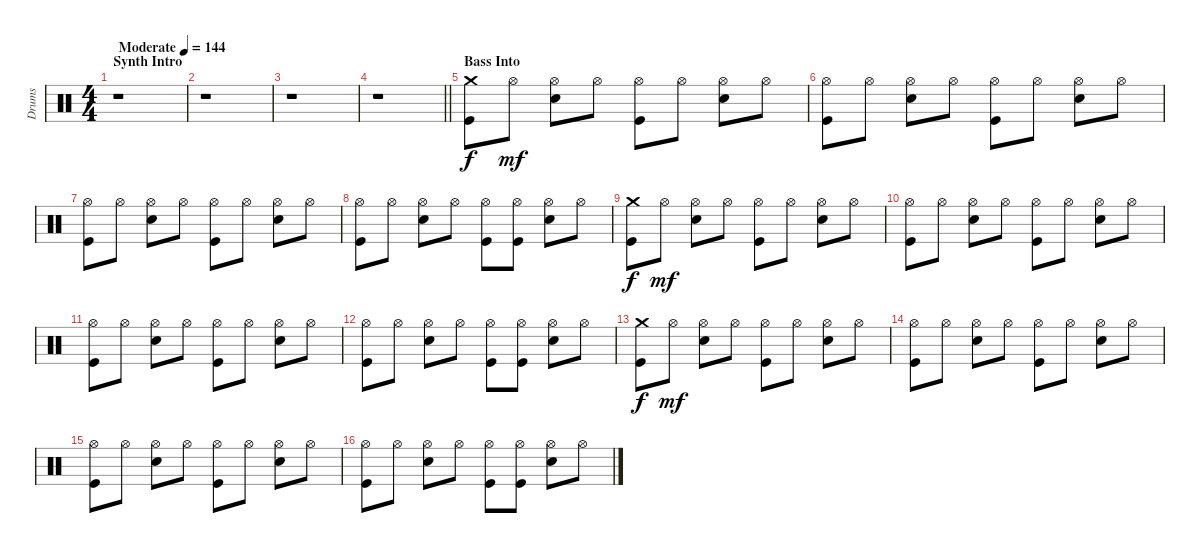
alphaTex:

\track ("Drums" "Drums") {instrument percussion}
\staff {score}
\articulation defaults
\ts (4 4)
\section ("" "Synth Intro")
\tempo (144 "Moderate")
\clef neutral
\ks c
r.1{dy f} |
r.1 |
r.1 |
\barLineRight lightlight
r.1 |
\section ("" "Bass Into")
("Crash medium (hit)" "Kick (hit)").8 "Hi-Hat (open)".8{dy mf} ("Hi-Hat (open)" "Snare (hit) 2").8 "Hi-Hat (open)".8 ("Hi-Hat (open)" "Kick (hit)").8 "Hi-Hat (open)".8 ("Hi-Hat (open)" "Snare (hit) 2").8 "Hi-Hat (open)".8 |
("Hi-Hat (open)" "Kick (hit)").8 "Hi-Hat (open)".8 ("Hi-Hat (open)" "Snare (hit) 2").8 "Hi-Hat (open)".8 ("Hi-Hat (open)" "Kick (hit)").8 "Hi-Hat (open)".8 ("Hi-Hat (open)" "Snare (hit) 2").8 "Hi-Hat (open)".8 |
("Hi-Hat (open)" "Kick (hit)").8 "Hi-Hat (open)".8 ("Hi-Hat (open)" "Snare (hit) 2").8 "Hi-Hat (open)".8 ("Hi-Hat (open)" "Kick (hit)").8 "Hi-Hat (open)".8 ("Hi-Hat (open)" "Snare (hit) 2").8 "Hi-Hat (open)".8 |
("Hi-Hat (open)" "Kick (hit)").8 "Hi-Hat (open)".8 ("Hi-Hat (open)" "Snare (hit) 2").8 "Hi-Hat (open)".8 ("Hi-Hat (open)" "Kick (hit)").8 ("Hi-Hat (open)" "Kick (hit)").8 ("Hi-Hat (open)" "Snare (hit) 2").8 "Hi-Hat (open)".8 |
("Crash medium (hit)" "Kick (hit)").8{dy f} "Hi-Hat (open)".8{dy mf} ("Hi-Hat (open)" "Snare (hit) 2").8 "Hi-Hat (open)".8 ("Hi-Hat (open)" "Kick (hit)").8 "Hi-Hat (open)".8 ("Hi-Hat (open)" "Snare (hit) 2").8 "Hi-Hat (open)".8 |
("Hi-Hat (open)" "Kick (hit)").8 "Hi-Hat (open)".8 ("Hi-Hat (open)" "Snare (hit) 2").8 "Hi-Hat (open)".8 ("Hi-Hat (open)" "Kick (hit)").8 "Hi-Hat (open)".8 ("Hi-Hat (open)" "Snare (hit) 2").8 "Hi-Hat (open)".8 |
("Hi-Hat (open)" "Kick (hit)").8 "Hi-Hat (open)".8 ("Hi-Hat (open)" "Snare (hit) 2").8 "Hi-Hat (open)".8 ("Hi-Hat (open)" "Kick (hit)").8 "Hi-Hat (open)".8 ("Hi-Hat (open)" "Snare (hit) 2").8 "Hi-Hat (open)".8 |
("Hi-Hat (open)" "Kick (hit)").8 "Hi-Hat (open)".8 ("Hi-Hat (open)" "Snare (hit) 2").8 "Hi-Hat (open)".8 ("Hi-Hat (open)" "Kick (hit)").8 ("Hi-Hat (open)" "Kick (hit)").8 ("Hi-Hat (open)" "Snare (hit) 2").8 "Hi-Hat (open)".8 |
("Crash medium (hit)" "Kick (hit)").8{dy f} "Hi-Hat (open)".8{dy mf} ("Hi-Hat (open)" "Snare (hit) 2").8 "Hi-Hat (open)".8 ("Hi-Hat (open)" "Kick (hit)").8 "Hi-Hat (open)".8 ("Hi-Hat (open)" "Snare (hit) 2").8 "Hi-Hat (open)".8 |
("Hi-Hat (open)" "Kick (hit)").8 "Hi-Hat (open)".8 ("Hi-Hat (open)" "Snare (hit) 2").8 "Hi-Hat (open)".8 ("Hi-Hat (open)" "Kick (hit)").8 "Hi-Hat (open)".8 ("Hi-Hat (open)" "Snare (hit) 2").8 "Hi-Hat (open)".8 |
("Hi-Hat (open)" "Kick (hit)").8 "Hi-Hat (open)".8 ("Hi-Hat (open)" "Snare (hit) 2").8 "Hi-Hat (open)".8 ("Hi-Hat (open)" "Kick (hit)").8 "Hi-Hat (open)".8 ("Hi-Hat (open)" "Snare (hit) 2").8 "Hi-Hat (open)".8 |
("Hi-Hat (open)" "Kick (hit)").8 "Hi-Hat (open)".8 ("Hi-Hat (open)" "Snare (hit) 2").8 "Hi-Hat (open)".8 ("Hi-Hat (open)" "Kick (hit)").8 ("Hi-Hat (open)" "Kick (hit)").8 ("Hi-Hat (open)" "Snare (hit) 2").8 "Hi-Hat (open)".8
